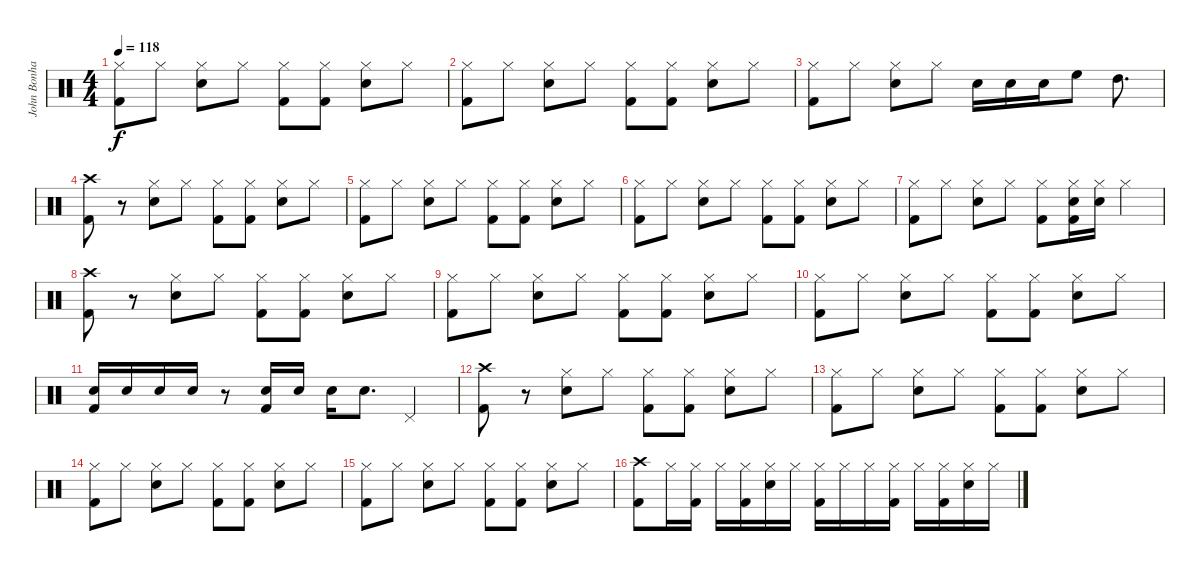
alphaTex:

\track ("John Bonham (Bateria)" "John Bonha") {instrument percussion}
\staff {score}
\articulation defaults
\ts (4 4)
\tempo 118
\clef neutral
\ks c
("Hi-Hat (closed)" "Kick (hit) 2").8{dy f} "Hi-Hat (closed)".8 ("Snare (hit) 2" "Hi-Hat (closed)").8 "Hi-Hat (closed)".8 ("Kick (hit) 2" "Hi-Hat (closed)").8 ("Kick (hit) 2" "Hi-Hat (closed)").8 ("Snare (hit) 2" "Hi-Hat (closed)").8 "Hi-Hat (closed)".8 |
("Hi-Hat (closed)" "Kick (hit) 2").8 "Hi-Hat (closed)".8 ("Snare (hit) 2" "Hi-Hat (closed)").8 "Hi-Hat (closed)".8 ("Kick (hit) 2" "Hi-Hat (closed)").8 ("Kick (hit) 2" "Hi-Hat (closed)").8 ("Snare (hit) 2" "Hi-Hat (closed)").8 "Hi-Hat (closed)".8 |
("Hi-Hat (closed)" "Kick (hit) 2").8 "Hi-Hat (closed)".8 ("Snare (hit) 2" "Hi-Hat (closed)").8 "Hi-Hat (closed)".8 "Snare (hit) 2".16 "Snare (hit) 2".16 "Snare (hit) 2".16 "High Floor Tom (hit)".8 "High Tom (hit)".8{d} |
("Crash high (hit)" "Kick (hit) 2").8 r.8 ("Snare (hit) 2" "Hi-Hat (closed)").8 "Hi-Hat (closed)".8 ("Hi-Hat (closed)" "Kick (hit) 2").8 ("Hi-Hat (closed)" "Kick (hit) 2").8 ("Hi-Hat (closed)" "Snare (hit) 2").8 "Hi-Hat (closed)".8 |
("Hi-Hat (closed)" "Kick (hit) 2").8 "Hi-Hat (closed)".8 ("Snare (hit) 2" "Hi-Hat (closed)").8 "Hi-Hat (closed)".8 ("Kick (hit) 2" "Hi-Hat (closed)").8 ("Kick (hit) 2" "Hi-Hat (closed)").8 ("Snare (hit) 2" "Hi-Hat (closed)").8 "Hi-Hat (closed)".8 |
("Hi-Hat (closed)" "Kick (hit) 2").8 "Hi-Hat (closed)".8 ("Snare (hit) 2" "Hi-Hat (closed)").8 "Hi-Hat (closed)".8 ("Kick (hit) 2" "Hi-Hat (closed)").8 ("Kick (hit) 2" "Hi-Hat (closed)").8 ("Snare (hit) 2" "Hi-Hat (closed)").8 "Hi-Hat (closed)".8 |
("Hi-Hat (closed)" "Kick (hit) 2").8 "Hi-Hat (closed)".8 ("Snare (hit) 2" "Hi-Hat (closed)").8 "Hi-Hat (closed)".8 ("Kick (hit) 2" "Hi-Hat (closed)").8 ("Kick (hit) 2" "Snare (hit) 2" "Hi-Hat (closed)").16 ("Snare (hit) 2" "Hi-Hat (closed)").16 "Hi-Hat (closed)".4 |
("Crash high (hit)" "Kick (hit) 2").8 r.8 ("Snare (hit) 2" "Hi-Hat (closed)").8 "Hi-Hat (closed)".8 ("Hi-Hat (closed)" "Kick (hit) 2").8 ("Hi-Hat (closed)" "Kick (hit) 2").8 ("Hi-Hat (closed)" "Snare (hit) 2").8 "Hi-Hat (closed)".8 |
("Hi-Hat (closed)" "Kick (hit) 2").8 "Hi-Hat (closed)".8 ("Snare (hit) 2" "Hi-Hat (closed)").8 "Hi-Hat (closed)".8 ("Kick (hit) 2" "Hi-Hat (closed)").8 ("Kick (hit) 2" "Hi-Hat (closed)").8 ("Snare (hit) 2" "Hi-Hat (closed)").8 "Hi-Hat (closed)".8 |
("Hi-Hat (closed)" "Kick (hit) 2").8 "Hi-Hat (closed)".8 ("Snare (hit) 2" "Hi-Hat (closed)").8 "Hi-Hat (closed)".8 ("Kick (hit) 2" "Hi-Hat (closed)").8 ("Kick (hit) 2" "Hi-Hat (closed)").8 ("Snare (hit) 2" "Hi-Hat (closed)").8 "Hi-Hat (closed)".8 |
("Kick (hit) 2" "Snare (hit) 2").16 "Snare (hit) 2".16 "Snare (hit) 2".16 "Snare (hit) 2".16 r.8 ("Snare (hit) 2" "Kick (hit) 2").16 "Snare (hit) 2".16 "Snare (hit) 2".16 "Snare (hit) 2".8{d} "Pedal Hi-Hat (hit)".4 |
("Crash high (hit)" "Kick (hit) 2").8 r.8 ("Snare (hit) 2" "Hi-Hat (closed)").8 "Hi-Hat (closed)".8 ("Hi-Hat (closed)" "Kick (hit) 2").8 ("Hi-Hat (closed)" "Kick (hit) 2").8 ("Hi-Hat (closed)" "Snare (hit) 2").8 "Hi-Hat (closed)".8 |
("Hi-Hat (closed)" "Kick (hit) 2").8 "Hi-Hat (closed)".8 ("Snare (hit) 2" "Hi-Hat (closed)").8 "Hi-Hat (closed)".8 ("Kick (hit) 2" "Hi-Hat (closed)").8 ("Kick (hit) 2" "Hi-Hat (closed)").8 ("Snare (hit) 2" "Hi-Hat (closed)").8 "Hi-Hat (closed)".8 |
("Hi-Hat (closed)" "Kick (hit) 2").8 "Hi-Hat (closed)".8 ("Snare (hit) 2" "Hi-Hat (closed)").8 "Hi-Hat (closed)".8 ("Kick (hit) 2" "Hi-Hat (closed)").8 ("Kick (hit) 2" "Hi-Hat (closed)").8 ("Snare (hit) 2" "Hi-Hat (closed)").8 "Hi-Hat (closed)".8 |
("Hi-Hat (closed)" "Kick (hit) 2").8 "Hi-Hat (closed)".8 ("Snare (hit) 2" "Hi-Hat (closed)").8 "Hi-Hat (closed)".8 ("Kick (hit) 2" "Hi-Hat (closed)").8 ("Kick (hit) 2" "Hi-Hat (closed)").8 ("Snare (hit) 2" "Hi-Hat (closed)").8 "Hi-Hat (closed)".8 |
("Crash high (hit)" "Kick (hit) 2").8 "Hi-Hat (closed)".16 ("Kick (hit) 2" "Hi-Hat (closed)").16 "Hi-Hat (closed)".16 ("Kick (hit) 2" "Hi-Hat (closed)").16 ("Snare (hit) 2" "Hi-Hat (closed)").16 "Hi-Hat (closed)".16 ("Kick (hit) 2" "Hi-Hat (closed)").16 "Hi-Hat (closed)".16 "Hi-Hat (closed)".16 ("Kick (hit) 2" "Hi-Hat (closed)").16 "Hi-Hat (closed)".16 ("Kick (hit) 2" "Hi-Hat (closed)").16 ("Snare (hit) 2" "Hi-Hat (closed)").16 "Hi-Hat (closed)".16
